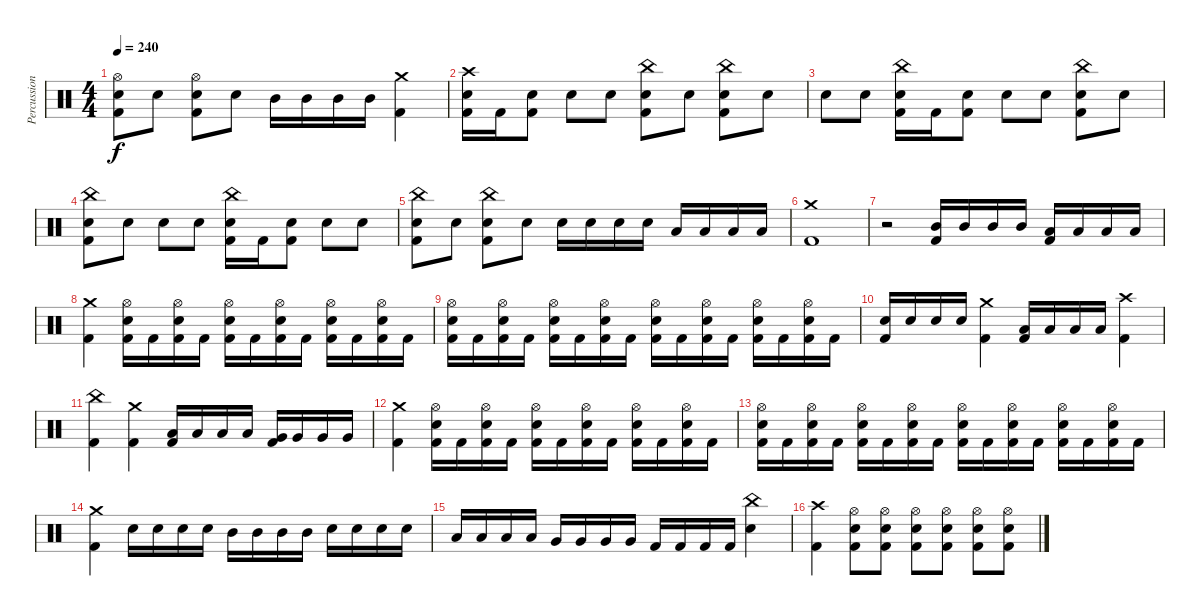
\track ("Percussion" "Percussion") {solo instrument percussion}
\staff {score}
\articulation defaults
\ts (4 4)
\tempo 240
\clef neutral
\ks c
("Hi-Hat (open)" "Electric Snare (hit)" "Kick (hit) 2").8{dy f} "Electric Snare (hit)".8 ("Hi-Hat (open)" "Electric Snare (hit)" "Kick (hit) 2").8 "Electric Snare (hit)".8 "Mid Tom (hit)".16 "Mid Tom (hit)".16 "Mid Tom (hit)".16 "Mid Tom (hit)".16 ("Crash medium (hit)" "Kick (hit) 2").4 |
("Crash high (hit)" "Electric Snare (hit)" "Kick (hit) 2").16 "Kick (hit) 2".16 ("Electric Snare (hit)" "Kick (hit) 2").8 "Electric Snare (hit)".8 "Electric Snare (hit)".8 ("China (hit)" "Electric Snare (hit)" "Kick (hit) 2").8 "Electric Snare (hit)".8 ("China (hit)" "Electric Snare (hit)" "Kick (hit) 2").8 "Electric Snare (hit)".8 |
"Electric Snare (hit)".8 "Electric Snare (hit)".8 ("China (hit)" "Electric Snare (hit)" "Kick (hit) 2").16 "Kick (hit) 2".16 ("Electric Snare (hit)" "Kick (hit) 2").8 "Electric Snare (hit)".8 "Electric Snare (hit)".8 ("China (hit)" "Electric Snare (hit)" "Kick (hit) 2").8 "Electric Snare (hit)".8 |
("China (hit)" "Electric Snare (hit)" "Kick (hit) 2").8 "Electric Snare (hit)".8 "Electric Snare (hit)".8 "Electric Snare (hit)".8 ("China (hit)" "Electric Snare (hit)" "Kick (hit) 2").16 "Kick (hit) 2".16 ("Electric Snare (hit)" "Kick (hit) 2").8 "Electric Snare (hit)".8 "Electric Snare (hit)".8 |
("China (hit)" "Electric Snare (hit)" "Kick (hit) 2").8 "Electric Snare (hit)".8 ("China (hit)" "Electric Snare (hit)" "Kick (hit) 2").8 "Electric Snare (hit)".8 "Electric Snare (hit)".16 "Electric Snare (hit)".16 "Electric Snare (hit)".16 "Electric Snare (hit)".16 "Low Tom (hit)".16 "Low Tom (hit)".16 "Low Tom (hit)".16 "Low Tom (hit)".16 |
("Crash medium (hit)" "Kick (hit) 2").1 |
r.2 ("Mid Tom (hit)" "Kick (hit) 2").16 "Mid Tom (hit)".16 "Mid Tom (hit)".16 "Mid Tom (hit)".16 ("Low Tom (hit)" "Kick (hit) 2").16 "Low Tom (hit)".16 "Low Tom (hit)".16 "Low Tom (hit)".16 |
("Crash medium (hit)" "Kick (hit) 2").4 ("Hi-Hat (open)" "Electric Snare (hit)" "Kick (hit) 2").16 "Kick (hit) 2".16 ("Hi-Hat (open)" "Electric Snare (hit)" "Kick (hit) 2").16 "Kick (hit) 2".16 ("Hi-Hat (open)" "Electric Snare (hit)" "Kick (hit) 2").16 "Kick (hit) 2".16 ("Hi-Hat (open)" "Electric Snare (hit)" "Kick (hit) 2").16 "Kick (hit) 2".16 ("Hi-Hat (open)" "Electric Snare (hit)" "Kick (hit) 2").16 "Kick (hit) 2".16 ("Hi-Hat (open)" "Electric Snare (hit)" "Kick (hit) 2").16 "Kick (hit) 2".16 |
("Hi-Hat (open)" "Electric Snare (hit)" "Kick (hit) 2").16 "Kick (hit) 2".16 ("Hi-Hat (open)" "Electric Snare (hit)" "Kick (hit) 2").16 "Kick (hit) 2".16 ("Hi-Hat (open)" "Electric Snare (hit)" "Kick (hit) 2").16 "Kick (hit) 2".16 ("Hi-Hat (open)" "Electric Snare (hit)" "Kick (hit) 2").16 "Kick (hit) 2".16 ("Hi-Hat (open)" "Electric Snare (hit)" "Kick (hit) 2").16 "Kick (hit) 2".16 ("Hi-Hat (open)" "Electric Snare (hit)" "Kick (hit) 2").16 "Kick (hit) 2".16 ("Hi-Hat (open)" "Electric Snare (hit)" "Kick (hit) 2").16 "Kick (hit) 2".16 ("Hi-Hat (open)" "Electric Snare (hit)" "Kick (hit) 2").16 "Kick (hit) 2".16 |
("Electric Snare (hit)" "Kick (hit) 2").16 "Electric Snare (hit)".16 "Electric Snare (hit)".16 "Electric Snare (hit)".16 ("Crash medium (hit)" "Kick (hit) 2").4 ("Low Tom (hit)" "Kick (hit) 2").16 "Low Tom (hit)".16 "Low Tom (hit)".16 "Low Tom (hit)".16 ("Crash high (hit)" "Kick (hit) 2").4 |
("China (hit)" "Kick (hit) 2").4 ("Crash medium (hit)" "Kick (hit) 2").4 ("Low Tom (hit)" "Kick (hit) 2").16 "Low Tom (hit)".16 "Low Tom (hit)".16 "Low Tom (hit)".16 ("Very Low Tom (hit)" "Kick (hit) 2").16 "Very Low Tom (hit)".16 "Very Low Tom (hit)".16 "Very Low Tom (hit)".16 |
("Crash medium (hit)" "Kick (hit) 2").4 ("Hi-Hat (open)" "Electric Snare (hit)" "Kick (hit) 2").16 "Kick (hit) 2".16 ("Hi-Hat (open)" "Electric Snare (hit)" "Kick (hit) 2").16 "Kick (hit) 2".16 ("Hi-Hat (open)" "Electric Snare (hit)" "Kick (hit) 2").16 "Kick (hit) 2".16 ("Hi-Hat (open)" "Electric Snare (hit)" "Kick (hit) 2").16 "Kick (hit) 2".16 ("Hi-Hat (open)" "Electric Snare (hit)" "Kick (hit) 2").16 "Kick (hit) 2".16 ("Hi-Hat (open)" "Electric Snare (hit)" "Kick (hit) 2").16 "Kick (hit) 2".16 |
("Hi-Hat (open)" "Electric Snare (hit)" "Kick (hit) 2").16 "Kick (hit) 2".16 ("Hi-Hat (open)" "Electric Snare (hit)" "Kick (hit) 2").16 "Kick (hit) 2".16 ("Hi-Hat (open)" "Electric Snare (hit)" "Kick (hit) 2").16 "Kick (hit) 2".16 ("Hi-Hat (open)" "Electric Snare (hit)" "Kick (hit) 2").16 "Kick (hit) 2".16 ("Hi-Hat (open)" "Electric Snare (hit)" "Kick (hit) 2").16 "Kick (hit) 2".16 ("Hi-Hat (open)" "Electric Snare (hit)" "Kick (hit) 2").16 "Kick (hit) 2".16 ("Hi-Hat (open)" "Electric Snare (hit)" "Kick (hit) 2").16 "Kick (hit) 2".16 ("Hi-Hat (open)" "Electric Snare (hit)" "Kick (hit) 2").16 "Kick (hit) 2".16 |
("Crash medium (hit)" "Kick (hit) 2").4 "Electric Snare (hit)".16 "Electric Snare (hit)".16 "Electric Snare (hit)".16 "Electric Snare (hit)".16 "Mid Tom (hit)".16 "Mid Tom (hit)".16 "Mid Tom (hit)".16 "Mid Tom (hit)".16 "Electric Snare (hit)".16 "Electric Snare (hit)".16 "Electric Snare (hit)".16 "Electric Snare (hit)".16 |
"Low Tom (hit)".16 "Low Tom (hit)".16 "Low Tom (hit)".16 "Low Tom (hit)".16 "Very Low Tom (hit)".16 "Very Low Tom (hit)".16 "Very Low Tom (hit)".16 "Very Low Tom (hit)".16 "Kick (hit) 2".16 "Kick (hit) 2".16 "Kick (hit) 2".16 "Kick (hit) 2".16 ("China (hit)" "Electric Snare (hit)").4 |
("Crash high (hit)" "Kick (hit) 2").4 ("Hi-Hat (open)" "Electric Snare (hit)" "Kick (hit) 2").8 ("Hi-Hat (open)" "Electric Snare (hit)" "Kick (hit) 2").8 ("Hi-Hat (open)" "Electric Snare (hit)" "Kick (hit) 2").8 ("Hi-Hat (open)" "Electric Snare (hit)" "Kick (hit) 2").8 ("Hi-Hat (open)" "Electric Snare (hit)" "Kick (hit) 2").8 ("Hi-Hat (open)" "Electric Snare (hit)" "Kick (hit) 2").8
